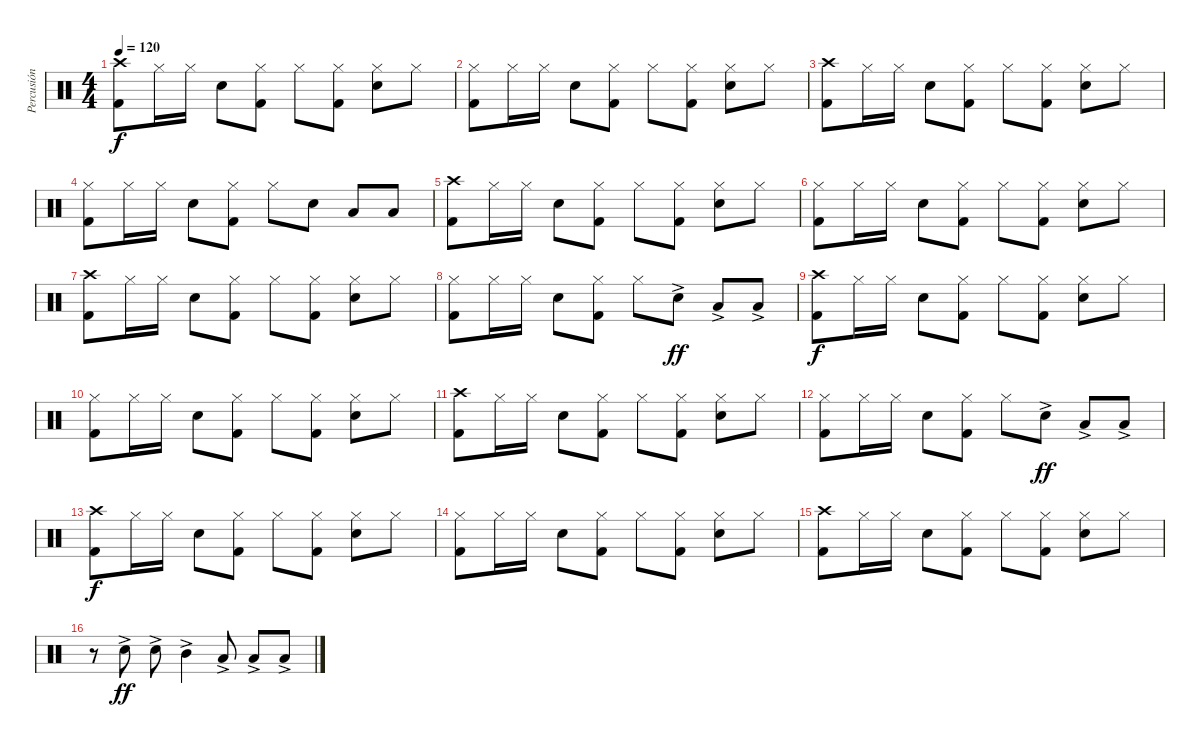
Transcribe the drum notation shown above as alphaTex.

\track ("Percusión" "Percusión") {instrument percussion}
\staff {score}
\articulation defaults
\ts (4 4)
\tempo 120
\clef neutral
\ks c
("Crash high (hit)" "Kick (hit) 2").8{dy f} "Hi-Hat (closed)".16 "Hi-Hat (closed)".16 "Snare (hit) 2".8 ("Hi-Hat (closed)" "Kick (hit) 2").8 "Hi-Hat (closed)".8 ("Hi-Hat (closed)" "Kick (hit) 2").8 ("Hi-Hat (closed)" "Snare (hit) 2").8 "Hi-Hat (closed)".8 |
("Hi-Hat (closed)" "Kick (hit) 2").8 "Hi-Hat (closed)".16 "Hi-Hat (closed)".16 "Snare (hit) 2".8 ("Hi-Hat (closed)" "Kick (hit) 2").8 "Hi-Hat (closed)".8 ("Hi-Hat (closed)" "Kick (hit) 2").8 ("Hi-Hat (closed)" "Snare (hit) 2").8 "Hi-Hat (closed)".8 |
("Crash high (hit)" "Kick (hit) 2").8 "Hi-Hat (closed)".16 "Hi-Hat (closed)".16 "Snare (hit) 2".8 ("Hi-Hat (closed)" "Kick (hit) 2").8 "Hi-Hat (closed)".8 ("Hi-Hat (closed)" "Kick (hit) 2").8 ("Hi-Hat (closed)" "Snare (hit) 2").8 "Hi-Hat (closed)".8 |
("Hi-Hat (closed)" "Kick (hit) 2").8 "Hi-Hat (closed)".16 "Hi-Hat (closed)".16 "Snare (hit) 2".8 ("Hi-Hat (closed)" "Kick (hit) 2").8 "Hi-Hat (closed)".8 "Snare (hit) 2".8 "Low Tom (hit)".8 "Low Floor Tom (hit)".8 |
("Crash high (hit)" "Kick (hit) 2").8 "Hi-Hat (closed)".16 "Hi-Hat (closed)".16 "Snare (hit) 2".8 ("Hi-Hat (closed)" "Kick (hit) 2").8 "Hi-Hat (closed)".8 ("Hi-Hat (closed)" "Kick (hit) 2").8 ("Hi-Hat (closed)" "Snare (hit) 2").8 "Hi-Hat (closed)".8 |
("Hi-Hat (closed)" "Kick (hit) 2").8 "Hi-Hat (closed)".16 "Hi-Hat (closed)".16 "Snare (hit) 2".8 ("Hi-Hat (closed)" "Kick (hit) 2").8 "Hi-Hat (closed)".8 ("Hi-Hat (closed)" "Kick (hit) 2").8 ("Hi-Hat (closed)" "Snare (hit) 2").8 "Hi-Hat (closed)".8 |
("Crash high (hit)" "Kick (hit) 2").8 "Hi-Hat (closed)".16 "Hi-Hat (closed)".16 "Snare (hit) 2".8 ("Hi-Hat (closed)" "Kick (hit) 2").8 "Hi-Hat (closed)".8 ("Hi-Hat (closed)" "Kick (hit) 2").8 ("Hi-Hat (closed)" "Snare (hit) 2").8 "Hi-Hat (closed)".8 |
("Hi-Hat (closed)" "Kick (hit) 2").8 "Hi-Hat (closed)".16 "Hi-Hat (closed)".16 "Snare (hit) 2".8 ("Hi-Hat (closed)" "Kick (hit) 2").8 "Hi-Hat (closed)".8 "Snare (hit) 2"{ac}.8{dy ff} "Low Tom (hit)"{ac}.8 "Low Floor Tom (hit)"{ac}.8 |
("Crash high (hit)" "Kick (hit) 2").8{dy f} "Hi-Hat (closed)".16 "Hi-Hat (closed)".16 "Snare (hit) 2".8 ("Hi-Hat (closed)" "Kick (hit) 2").8 "Hi-Hat (closed)".8 ("Hi-Hat (closed)" "Kick (hit) 2").8 ("Hi-Hat (closed)" "Snare (hit) 2").8 "Hi-Hat (closed)".8 |
("Hi-Hat (closed)" "Kick (hit) 2").8 "Hi-Hat (closed)".16 "Hi-Hat (closed)".16 "Snare (hit) 2".8 ("Hi-Hat (closed)" "Kick (hit) 2").8 "Hi-Hat (closed)".8 ("Hi-Hat (closed)" "Kick (hit) 2").8 ("Hi-Hat (closed)" "Snare (hit) 2").8 "Hi-Hat (closed)".8 |
("Crash high (hit)" "Kick (hit) 2").8 "Hi-Hat (closed)".16 "Hi-Hat (closed)".16 "Snare (hit) 2".8 ("Hi-Hat (closed)" "Kick (hit) 2").8 "Hi-Hat (closed)".8 ("Hi-Hat (closed)" "Kick (hit) 2").8 ("Hi-Hat (closed)" "Snare (hit) 2").8 "Hi-Hat (closed)".8 |
("Hi-Hat (closed)" "Kick (hit) 2").8 "Hi-Hat (closed)".16 "Hi-Hat (closed)".16 "Snare (hit) 2".8 ("Hi-Hat (closed)" "Kick (hit) 2").8 "Hi-Hat (closed)".8 "Snare (hit) 2"{ac}.8{dy ff} "Low Tom (hit)"{ac}.8 "Low Floor Tom (hit)"{ac}.8 |
("Crash high (hit)" "Kick (hit) 2").8{dy f} "Hi-Hat (closed)".16 "Hi-Hat (closed)".16 "Snare (hit) 2".8 ("Hi-Hat (closed)" "Kick (hit) 2").8 "Hi-Hat (closed)".8 ("Hi-Hat (closed)" "Kick (hit) 2").8 ("Hi-Hat (closed)" "Snare (hit) 2").8 "Hi-Hat (closed)".8 |
("Hi-Hat (closed)" "Kick (hit) 2").8 "Hi-Hat (closed)".16 "Hi-Hat (closed)".16 "Snare (hit) 2".8 ("Hi-Hat (closed)" "Kick (hit) 2").8 "Hi-Hat (closed)".8 ("Hi-Hat (closed)" "Kick (hit) 2").8 ("Hi-Hat (closed)" "Snare (hit) 2").8 "Hi-Hat (closed)".8 |
("Crash high (hit)" "Kick (hit) 2").8 "Hi-Hat (closed)".16 "Hi-Hat (closed)".16 "Snare (hit) 2".8 ("Hi-Hat (closed)" "Kick (hit) 2").8 "Hi-Hat (closed)".8 ("Hi-Hat (closed)" "Kick (hit) 2").8 ("Hi-Hat (closed)" "Snare (hit) 2").8 "Hi-Hat (closed)".8 |
r.8 "Snare (hit) 2"{ac}.8{dy ff} "Snare (hit) 2"{ac}.8 "Mid Tom (hit)"{ac}.4 "Low Tom (hit)"{ac}.8 "Low Tom (hit)"{ac}.8 "Low Floor Tom (hit)"{ac}.8
